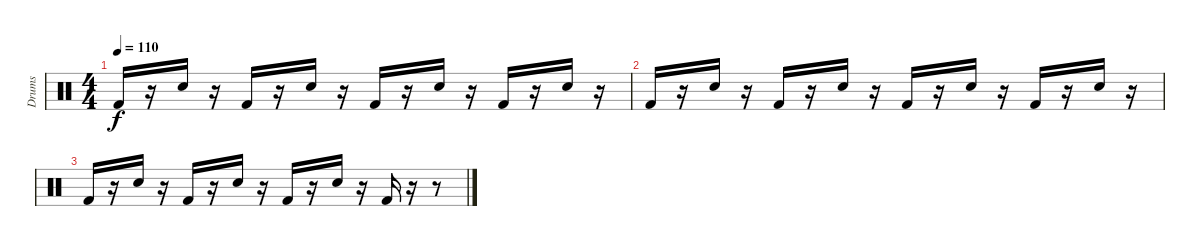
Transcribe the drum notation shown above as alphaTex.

\track ("Drums" "Drums") {instrument percussion}
\staff {score}
\articulation defaults
\ts (4 4)
\tempo 110
\clef neutral
\ks c "Kick (hit) 2".16{dy f}
r.16 "Snare (hit) 2".16 r.16 "Kick (hit) 2".16 r.16 "Snare (hit) 2".16 r.16 "Kick (hit) 2".16 r.16 "Snare (hit) 2".16 r.16 "Kick (hit) 2".16 r.16 "Snare (hit) 2".16 r.16 |
"Kick (hit) 2".16 r.16 "Snare (hit) 2".16 r.16 "Kick (hit) 2".16 r.16 "Snare (hit) 2".16 r.16 "Kick (hit) 2".16 r.16 "Snare (hit) 2".16 r.16 "Kick (hit) 2".16 r.16 "Snare (hit) 2".16 r.16 |
"Kick (hit) 2".16 r.16 "Snare (hit) 2".16 r.16 "Kick (hit) 2".16 r.16 "Snare (hit) 2".16 r.16 "Kick (hit) 2".16 r.16 "Snare (hit) 2".16 r.16 "Kick (hit) 2".16 r.16 r.8
